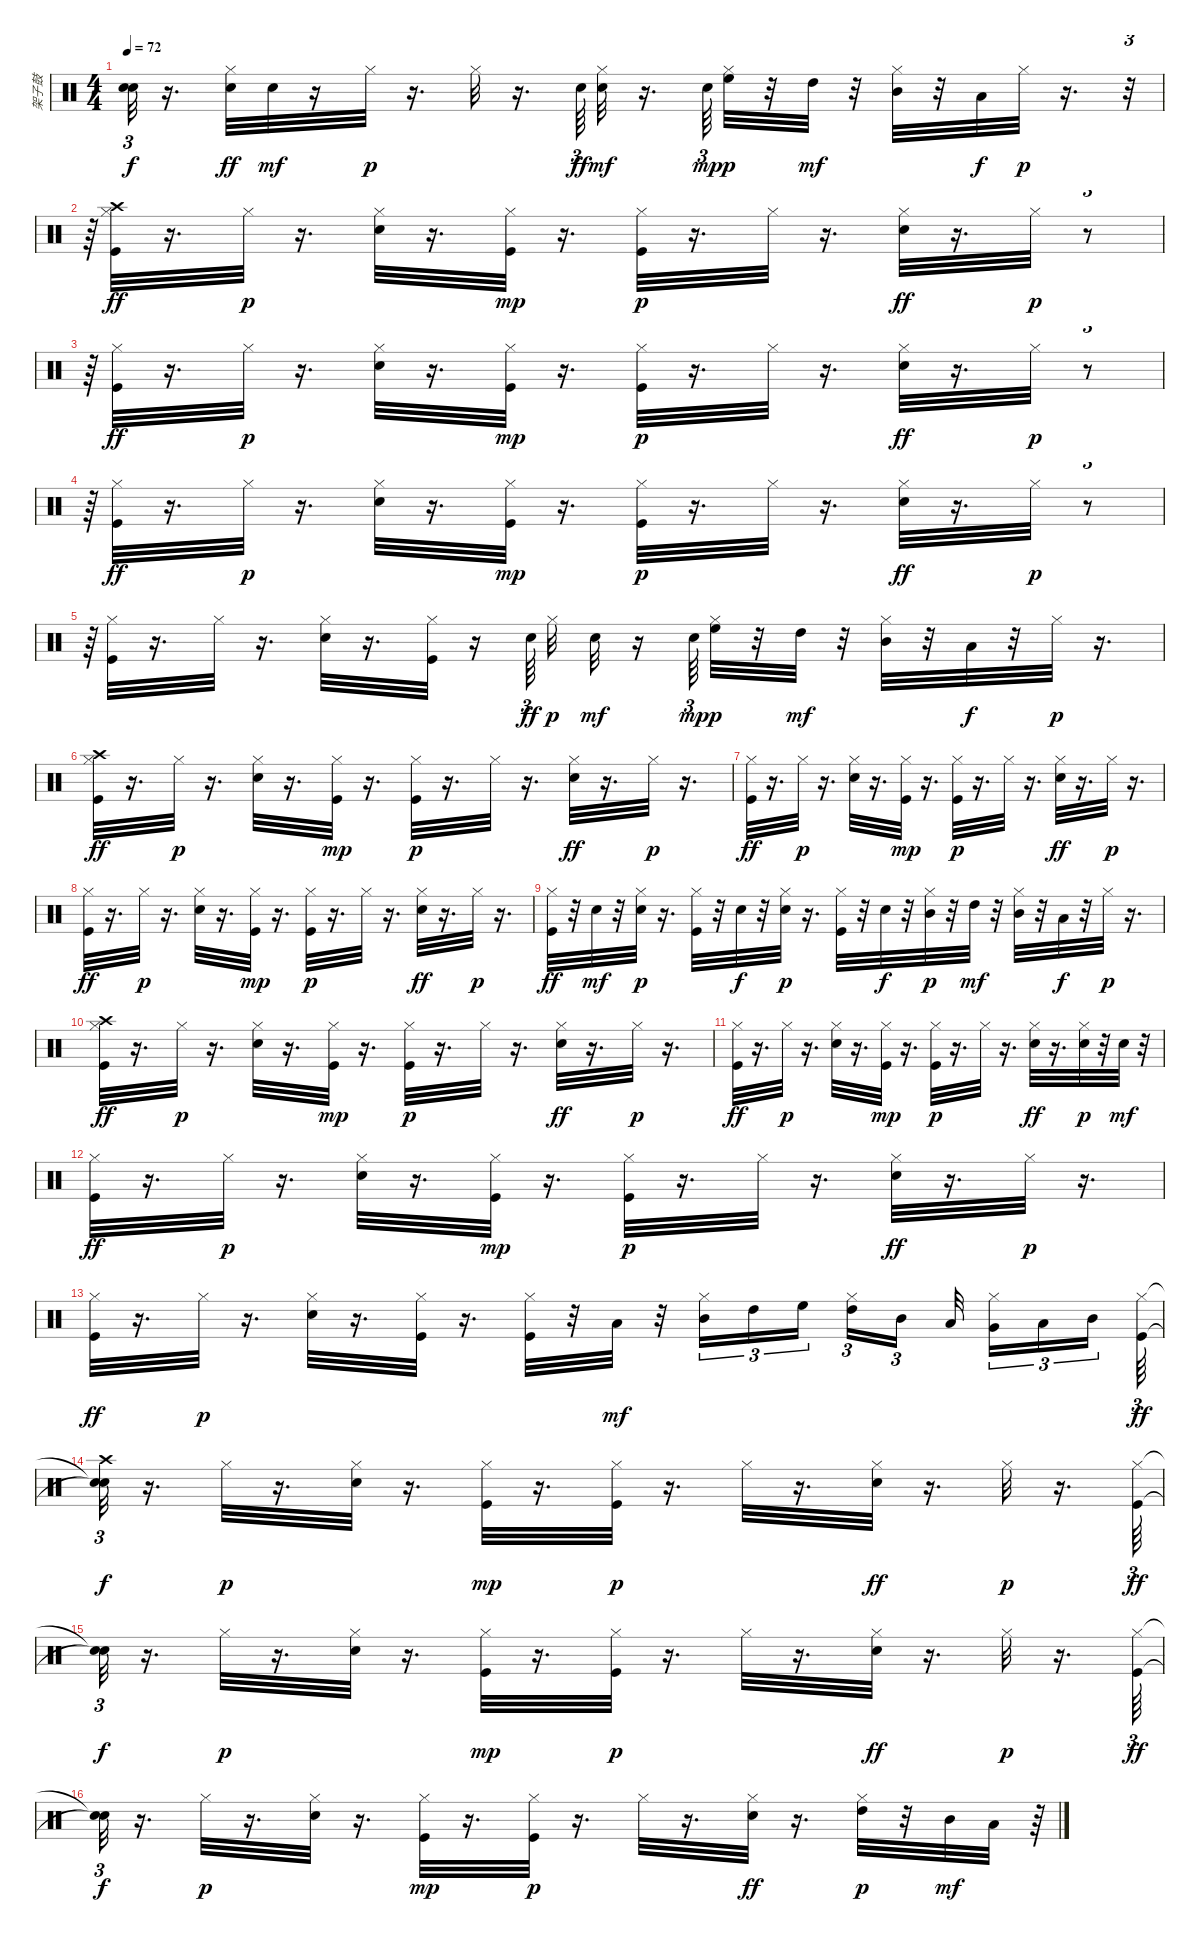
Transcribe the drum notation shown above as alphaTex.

\track ("架子鼓" "架子鼓") {instrument percussion}
\staff {score}
\articulation defaults
\ts (4 4)
\tempo 72
\clef neutral
\ks c
("Snare (hit)"{t} "Snare (hit)"{t}).32{tu (3 2) dy f} r.16{d} ("Hi-Hat (closed)" "Snare (hit) 2").32{dy ff} "Snare (hit) 2".32{dy mf} r.16 "Hi-Hat (closed)".32{dy p} r.16{d} "Hi-Hat (closed)".32 r.16{d} "Snare (hit) 2".64{tu (3 2) dy ff} ("Hi-Hat (closed)" "Snare (hit) 2").32{dy mf} r.16{d} "Snare (hit) 2".64{tu (3 2) dy mp} ("Hi-Hat (closed)" "High Floor Tom (hit)").32{dy p} r.32 "High Tom (hit)".32{dy mf} r.32 ("Hi-Hat (closed)" "Mid Tom (hit)").32 r.32 "Low Tom (hit)".32{dy f} "Hi-Hat (closed)".32{dy p} r.16{d} r.32{tu (3 2)} |
r.64{tu (3 2)} ("Hi-Hat (closed)" "Kick (hit)" "Crash high (hit)").32{dy ff} r.16{d} "Hi-Hat (closed)".32{dy p} r.16{d} ("Hi-Hat (closed)" "Snare (hit) 2").32 r.16{d} ("Hi-Hat (closed)" "Kick (hit)").32{dy mp} r.16{d} ("Hi-Hat (closed)" "Kick (hit)").32{dy p} r.16{d} "Hi-Hat (closed)".32 r.16{d} ("Hi-Hat (closed)" "Snare (hit) 2").32{dy ff} r.16{d} "Hi-Hat (closed)".32{dy p} r.8{tu (3 2)} |
r.64{tu (3 2)} ("Hi-Hat (closed)" "Kick (hit)").32{dy ff} r.16{d} "Hi-Hat (closed)".32{dy p} r.16{d} ("Hi-Hat (closed)" "Snare (hit) 2").32 r.16{d} ("Hi-Hat (closed)" "Kick (hit)").32{dy mp} r.16{d} ("Hi-Hat (closed)" "Kick (hit)").32{dy p} r.16{d} "Hi-Hat (closed)".32 r.16{d} ("Hi-Hat (closed)" "Snare (hit) 2").32{dy ff} r.16{d} "Hi-Hat (closed)".32{dy p} r.8{tu (3 2)} |
r.64{tu (3 2)} ("Hi-Hat (closed)" "Kick (hit)").32{dy ff} r.16{d} "Hi-Hat (closed)".32{dy p} r.16{d} ("Hi-Hat (closed)" "Snare (hit) 2").32 r.16{d} ("Hi-Hat (closed)" "Kick (hit)").32{dy mp} r.16{d} ("Hi-Hat (closed)" "Kick (hit)").32{dy p} r.16{d} "Hi-Hat (closed)".32 r.16{d} ("Hi-Hat (closed)" "Snare (hit) 2").32{dy ff} r.16{d} "Hi-Hat (closed)".32{dy p} r.8{tu (3 2)} |
r.64{tu (3 2)} ("Kick (hit)" "Hi-Hat (closed)").32 r.16{d} "Hi-Hat (closed)".32 r.16{d} ("Snare (hit) 2" "Hi-Hat (closed)").32 r.16{d} ("Kick (hit)" "Hi-Hat (closed)").32 r.16 "Snare (hit) 2".64{tu (3 2) dy ff} "Hi-Hat (closed)".32{dy p} "Snare (hit) 2".32{dy mf} r.16 "Snare (hit) 2".64{tu (3 2) dy mp} ("Hi-Hat (closed)" "High Floor Tom (hit)").32{dy p} r.32 "High Tom (hit)".32{dy mf} r.32 ("Hi-Hat (closed)" "Mid Tom (hit)").32 r.32 "Low Tom (hit)".32{dy f} r.32 "Hi-Hat (closed)".32{dy p} r.16{d} |
("Hi-Hat (closed)" "Kick (hit)" "Crash high (hit)").32{dy ff} r.16{d} "Hi-Hat (closed)".32{dy p} r.16{d} ("Hi-Hat (closed)" "Snare (hit) 2").32 r.16{d} ("Hi-Hat (closed)" "Kick (hit)").32{dy mp} r.16{d} ("Hi-Hat (closed)" "Kick (hit)").32{dy p} r.16{d} "Hi-Hat (closed)".32 r.16{d} ("Hi-Hat (closed)" "Snare (hit) 2").32{dy ff} r.16{d} "Hi-Hat (closed)".32{dy p} r.16{d} |
("Hi-Hat (closed)" "Kick (hit)").32{dy ff} r.16{d} "Hi-Hat (closed)".32{dy p} r.16{d} ("Hi-Hat (closed)" "Snare (hit) 2").32 r.16{d} ("Hi-Hat (closed)" "Kick (hit)").32{dy mp} r.16{d} ("Hi-Hat (closed)" "Kick (hit)").32{dy p} r.16{d} "Hi-Hat (closed)".32 r.16{d} ("Hi-Hat (closed)" "Snare (hit) 2").32{dy ff} r.16{d} "Hi-Hat (closed)".32{dy p} r.16{d} |
("Hi-Hat (closed)" "Kick (hit)").32{dy ff} r.16{d} "Hi-Hat (closed)".32{dy p} r.16{d} ("Hi-Hat (closed)" "Snare (hit) 2").32 r.16{d} ("Hi-Hat (closed)" "Kick (hit)").32{dy mp} r.16{d} ("Hi-Hat (closed)" "Kick (hit)").32{dy p} r.16{d} "Hi-Hat (closed)".32 r.16{d} ("Hi-Hat (closed)" "Snare (hit) 2").32{dy ff} r.16{d} "Hi-Hat (closed)".32{dy p} r.16{d} |
("Hi-Hat (closed)" "Kick (hit)").32{dy ff} r.32 "Snare (hit) 2".32{dy mf} r.32 ("Snare (hit) 2" "Hi-Hat (closed)").32{dy p} r.16{d} ("Kick (hit)" "Hi-Hat (closed)").32 r.32 "Snare (hit) 2".32{dy f} r.32 ("Snare (hit) 2" "Hi-Hat (closed)").32{dy p} r.16{d} ("Kick (hit)" "Hi-Hat (closed)").32 r.32 "Snare (hit) 2".32{dy f} r.32 ("Mid Tom (hit)" "Hi-Hat (closed)").32{dy p} r.32 "High Tom (hit)".32{dy mf} r.32 ("Hi-Hat (closed)" "Mid Tom (hit)").32 r.32 "Low Tom (hit)".32{dy f} r.32 "Hi-Hat (closed)".32{dy p} r.16{d} |
("Hi-Hat (closed)" "Kick (hit)" "Crash high (hit)").32{dy ff} r.16{d} "Hi-Hat (closed)".32{dy p} r.16{d} ("Hi-Hat (closed)" "Snare (hit) 2").32 r.16{d} ("Hi-Hat (closed)" "Kick (hit)").32{dy mp} r.16{d} ("Hi-Hat (closed)" "Kick (hit)").32{dy p} r.16{d} "Hi-Hat (closed)".32 r.16{d} ("Hi-Hat (closed)" "Snare (hit) 2").32{dy ff} r.16{d} "Hi-Hat (closed)".32{dy p} r.16{d} |
("Hi-Hat (closed)" "Kick (hit)").32{dy ff} r.16{d} "Hi-Hat (closed)".32{dy p} r.16{d} ("Hi-Hat (closed)" "Snare (hit) 2").32 r.16{d} ("Hi-Hat (closed)" "Kick (hit)").32{dy mp} r.16{d} ("Hi-Hat (closed)" "Kick (hit)").32{dy p} r.16{d} "Hi-Hat (closed)".32 r.16{d} ("Hi-Hat (closed)" "Snare (hit) 2").32{dy ff} r.16{d} ("Snare (hit) 2" "Hi-Hat (closed)").32{dy p} r.32 "Snare (hit) 2".32{dy mf} r.32 |
("Hi-Hat (closed)" "Kick (hit)").32{dy ff} r.16{d} "Hi-Hat (closed)".32{dy p} r.16{d} ("Hi-Hat (closed)" "Snare (hit) 2").32 r.16{d} ("Hi-Hat (closed)" "Kick (hit)").32{dy mp} r.16{d} ("Hi-Hat (closed)" "Kick (hit)").32{dy p} r.16{d} "Hi-Hat (closed)".32 r.16{d} ("Hi-Hat (closed)" "Snare (hit) 2").32{dy ff} r.16{d} "Hi-Hat (closed)".32{dy p} r.16{d} |
("Hi-Hat (closed)" "Kick (hit)").32{dy ff} r.16{d} "Hi-Hat (closed)".32{dy p} r.16{d} ("Snare (hit) 2" "Hi-Hat (closed)").32 r.16{d} ("Kick (hit)" "Hi-Hat (closed)").32 r.16{d} ("Kick (hit)" "Hi-Hat (closed)").32 r.32 "Low Tom (hit)".32{dy mf} r.32 ("Mid Tom (hit)" "Hi-Hat (closed)").16{tu (3 2)} "High Tom (hit)".16{tu (3 2)} "High Floor Tom (hit)".16{tu (3 2)} ("High Tom (hit)" "Hi-Hat (closed)").16{tu (3 2)} "Mid Tom (hit)".16{tu (3 2)} "Low Tom (hit)".32 ("Hi-Hat (closed)" "Very Low Tom (hit)").16{tu (3 2)} "Low Tom (hit)".16{tu (3 2)} "Mid Tom (hit)".16{tu (3 2)} ("Hi-Hat (closed)" "Kick (hit)").64{tu (3 2) dy ff} |
("Snare (hit)"{t} "Snare (hit)"{t} "Crash high (hit)").32{tu (3 2) dy f} r.16{d} "Hi-Hat (closed)".32{dy p} r.16{d} ("Hi-Hat (closed)" "Snare (hit) 2").32 r.16{d} ("Hi-Hat (closed)" "Kick (hit)").32{dy mp} r.16{d} ("Hi-Hat (closed)" "Kick (hit)").32{dy p} r.16{d} "Hi-Hat (closed)".32 r.16{d} ("Hi-Hat (closed)" "Snare (hit) 2").32{dy ff} r.16{d} "Hi-Hat (closed)".32{dy p} r.16{d} ("Hi-Hat (closed)" "Kick (hit)").64{tu (3 2) dy ff} |
("Snare (hit)"{t} "Snare (hit)"{t}).32{tu (3 2) dy f} r.16{d} "Hi-Hat (closed)".32{dy p} r.16{d} ("Hi-Hat (closed)" "Snare (hit) 2").32 r.16{d} ("Hi-Hat (closed)" "Kick (hit)").32{dy mp} r.16{d} ("Hi-Hat (closed)" "Kick (hit)").32{dy p} r.16{d} "Hi-Hat (closed)".32 r.16{d} ("Hi-Hat (closed)" "Snare (hit) 2").32{dy ff} r.16{d} "Hi-Hat (closed)".32{dy p} r.16{d} ("Hi-Hat (closed)" "Kick (hit)").64{tu (3 2) dy ff} |
("Snare (hit)"{t} "Snare (hit)"{t}).32{tu (3 2) dy f} r.16{d} "Hi-Hat (closed)".32{dy p} r.16{d} ("Hi-Hat (closed)" "Snare (hit) 2").32 r.16{d} ("Hi-Hat (closed)" "Kick (hit)").32{dy mp} r.16{d} ("Hi-Hat (closed)" "Kick (hit)").32{dy p} r.16{d} "Hi-Hat (closed)".32 r.16{d} ("Hi-Hat (closed)" "Snare (hit) 2").32{dy ff} r.16{d} ("High Tom (hit)" "Hi-Hat (closed)").32{dy p} r.32 "Mid Tom (hit)".32{dy mf} "Low Tom (hit)".32 r.64{tu (3 2)}
